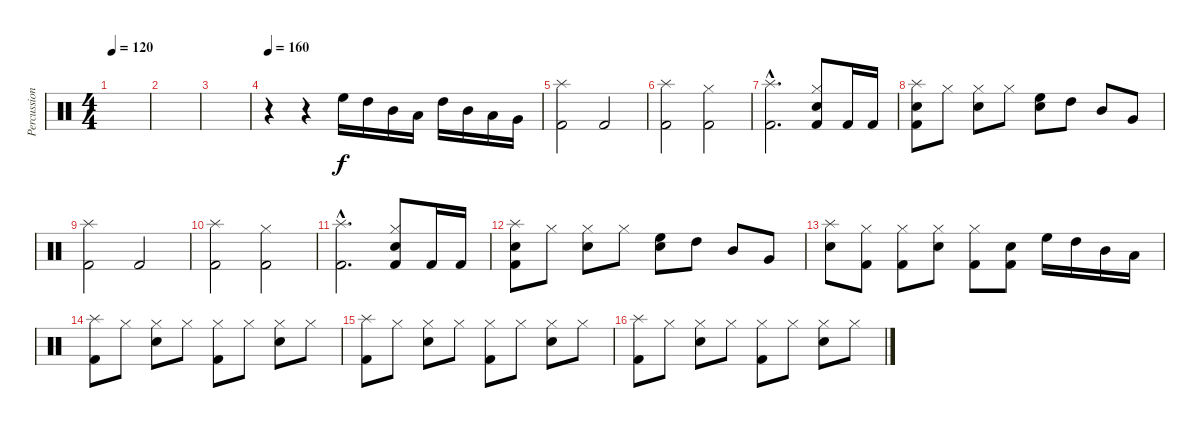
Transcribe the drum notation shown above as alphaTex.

\track ("Percussion" "Percussion") {instrument percussion}
\staff {score}
\articulation defaults
\ts (4 4)
\tempo 120
\tempo 70
\tempo 120
\clef neutral
\ks c
|
|
|
\tempo 160
r.4 r.4 "High Floor Tom (hit)".16 "High Tom (hit)".16 "Mid Tom (hit)".16 "Low Tom (hit)".16 "High Tom (hit)".16 "Mid Tom (hit)".16 "Low Tom (hit)".16 "Very Low Tom (hit)".16 |
("Splash (hit)" "Kick (hit) 2").2 "Kick (hit) 2".2 |
("Splash (hit)" "Kick (hit) 2").2 ("Hi-Hat (closed)" "Kick (hit) 2").2 |
("Splash (hit)"{hac} "Kick (hit) 2"{hac}).2{d} ("Hi-Hat (closed)" "Snare (hit) 2" "Kick (hit) 2").8 "Kick (hit) 2".16 "Kick (hit) 2".16 |
("Splash (hit)" "Snare (hit) 2" "Kick (hit) 2").8 "Hi-Hat (closed)".8 ("Hi-Hat (closed)" "Snare (hit) 2").8 "Hi-Hat (closed)".8 ("High Floor Tom (hit)" "Snare (hit) 2").8 "High Tom (hit)".8 "Mid Tom (hit)".8 "Very Low Tom (hit)".8 |
("Splash (hit)" "Kick (hit) 2").2 "Kick (hit) 2".2 |
("Splash (hit)" "Kick (hit) 2").2 ("Hi-Hat (closed)" "Kick (hit) 2").2 |
("Splash (hit)"{hac} "Kick (hit) 2"{hac}).2{d} ("Hi-Hat (closed)" "Snare (hit) 2" "Kick (hit) 2").8 "Kick (hit) 2".16 "Kick (hit) 2".16 |
("Splash (hit)" "Snare (hit) 2" "Kick (hit) 2").8 "Hi-Hat (closed)".8 ("Hi-Hat (closed)" "Snare (hit) 2").8 "Hi-Hat (closed)".8 ("High Floor Tom (hit)" "Snare (hit) 2").8 "High Tom (hit)".8 "Mid Tom (hit)".8 "Very Low Tom (hit)".8 |
("Splash (hit)" "Snare (hit) 2").8 ("Hi-Hat (closed)" "Kick (hit) 2").8 ("Hi-Hat (closed)" "Kick (hit) 2").8 ("Hi-Hat (closed)" "Snare (hit) 2").8 ("Hi-Hat (closed)" "Kick (hit) 2").8 ("Snare (hit) 2" "Kick (hit) 2").8 "High Floor Tom (hit)".16 "High Tom (hit)".16 "Mid Tom (hit)".16 "Low Tom (hit)".16 |
("Splash (hit)" "Kick (hit) 2").8 "Hi-Hat (closed)".8 ("Hi-Hat (closed)" "Snare (hit) 2").8 "Hi-Hat (closed)".8 ("Hi-Hat (closed)" "Kick (hit) 2").8 "Hi-Hat (closed)".8 ("Hi-Hat (closed)" "Snare (hit) 2").8 "Hi-Hat (closed)".8 |
("Splash (hit)" "Kick (hit) 2").8 "Hi-Hat (closed)".8 ("Hi-Hat (closed)" "Snare (hit) 2").8 "Hi-Hat (closed)".8 ("Hi-Hat (closed)" "Kick (hit) 2").8 "Hi-Hat (closed)".8 ("Hi-Hat (closed)" "Snare (hit) 2").8 "Hi-Hat (closed)".8 |
("Splash (hit)" "Kick (hit) 2").8 "Hi-Hat (closed)".8 ("Hi-Hat (closed)" "Snare (hit) 2").8 "Hi-Hat (closed)".8 ("Hi-Hat (closed)" "Kick (hit) 2").8 "Hi-Hat (closed)".8 ("Hi-Hat (closed)" "Snare (hit) 2").8 "Hi-Hat (closed)".8
